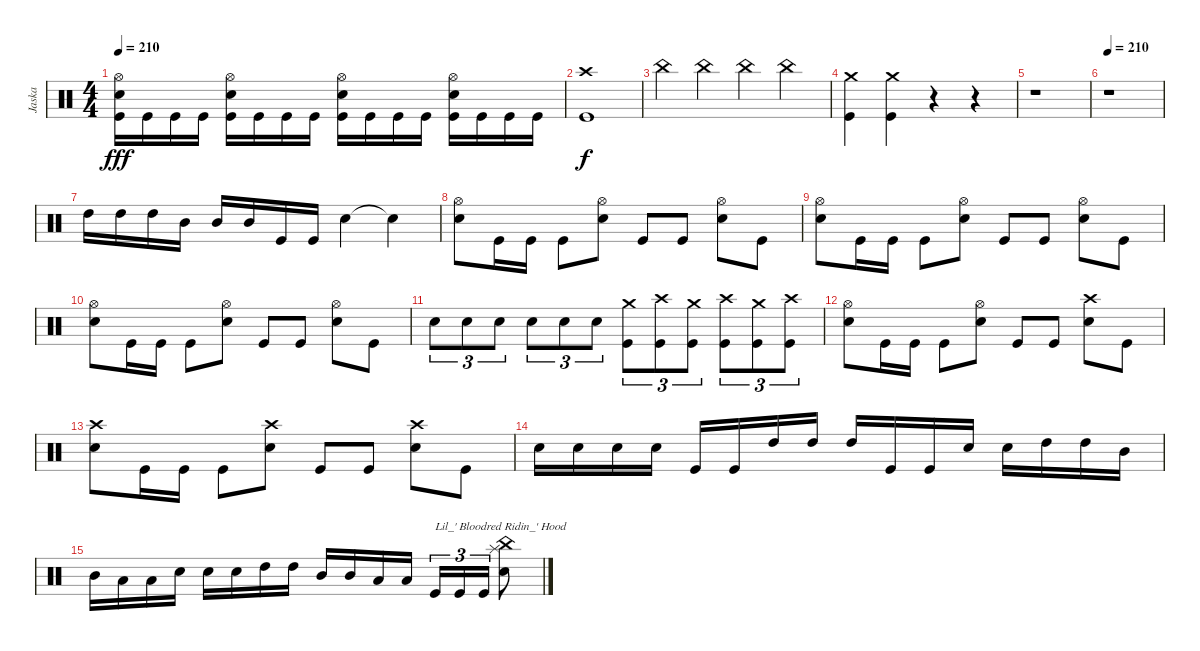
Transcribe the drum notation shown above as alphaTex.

\track ("Jaska" "Jaska") {instrument percussion}
\staff {score}
\articulation defaults
\ts (4 4)
\tempo 210
\clef neutral
\ks c
("Hi-Hat (open)" "Electric Snare (hit)" "Kick (hit)").16{dy fff} "Kick (hit)".16 "Kick (hit)".16 "Kick (hit)".16 ("Hi-Hat (open)" "Electric Snare (hit)" "Kick (hit)").16 "Kick (hit)".16 "Kick (hit)".16 "Kick (hit)".16 ("Hi-Hat (open)" "Electric Snare (hit)" "Kick (hit)").16 "Kick (hit)".16 "Kick (hit)".16 "Kick (hit)".16 ("Hi-Hat (open)" "Electric Snare (hit)" "Kick (hit)").16 "Kick (hit)".16 "Kick (hit)".16 "Kick (hit)".16 |
("Crash high (hit)" "Kick (hit)").1{dy f} |
"China (hit)".4 "China (hit)".4 "China (hit)".4 "China (hit)".4 |
("Crash medium (hit)" "Kick (hit)").4 ("Crash medium (hit)" "Kick (hit)").4 r.4 r.4 |
r.1 |
\tempo 210
r.1 |
"High Tom (hit)".16 "High Tom (hit)".16 "High Tom (hit)".16 "Mid Tom (hit)".16 "Mid Tom (hit)".16 "Mid Tom (hit)".16 "Kick (hit)".16 "Kick (hit)".16 "Electric Snare (hit)".4 "Snare (hit)"{t}.4 |
("Hi-Hat (open)" "Electric Snare (hit)").8 "Kick (hit)".16 "Kick (hit)".16 "Kick (hit)".8 ("Hi-Hat (open)" "Electric Snare (hit)").8 "Kick (hit)".8 "Kick (hit)".8 ("Hi-Hat (open)" "Electric Snare (hit)").8 "Kick (hit)".8 |
("Hi-Hat (open)" "Electric Snare (hit)").8 "Kick (hit)".16 "Kick (hit)".16 "Kick (hit)".8 ("Hi-Hat (open)" "Electric Snare (hit)").8 "Kick (hit)".8 "Kick (hit)".8 ("Hi-Hat (open)" "Electric Snare (hit)").8 "Kick (hit)".8 |
("Hi-Hat (open)" "Electric Snare (hit)").8 "Kick (hit)".16 "Kick (hit)".16 "Kick (hit)".8 ("Hi-Hat (open)" "Electric Snare (hit)").8 "Kick (hit)".8 "Kick (hit)".8 ("Hi-Hat (open)" "Electric Snare (hit)").8 "Kick (hit)".8 |
"Electric Snare (hit)".8{tu (3 2)} "Electric Snare (hit)".8{tu (3 2)} "Electric Snare (hit)".8{tu (3 2)} "Electric Snare (hit)".8{tu (3 2)} "Electric Snare (hit)".8{tu (3 2)} "Electric Snare (hit)".8{tu (3 2)} ("Crash medium (hit)" "Kick (hit)").8{tu (3 2)} ("Crash high (hit)" "Kick (hit)").8{tu (3 2)} ("Crash medium (hit)" "Kick (hit)").8{tu (3 2)} ("Crash high (hit)" "Kick (hit)").8{tu (3 2)} ("Crash medium (hit)" "Kick (hit)").8{tu (3 2)} ("Crash high (hit)" "Kick (hit)").8{tu (3 2)} |
("Hi-Hat (open)" "Electric Snare (hit)").8 "Kick (hit)".16 "Kick (hit)".16 "Kick (hit)".8 ("Hi-Hat (open)" "Electric Snare (hit)").8 "Kick (hit)".8 "Kick (hit)".8 ("Crash high (hit)" "Electric Snare (hit)").8 "Kick (hit)".8 |
("Crash high (hit)" "Electric Snare (hit)").8 "Kick (hit)".16 "Kick (hit)".16 "Kick (hit)".8 ("Crash high (hit)" "Electric Snare (hit)").8 "Kick (hit)".8 "Kick (hit)".8 ("Crash high (hit)" "Electric Snare (hit)").8 "Kick (hit)".8 |
"Electric Snare (hit)".16 "Electric Snare (hit)".16 "Electric Snare (hit)".16 "Electric Snare (hit)".16 "Kick (hit)".16 "Kick (hit)".16 "High Tom (hit)".16 "High Tom (hit)".16 "High Tom (hit)".16 "Kick (hit)".16 "Kick (hit)".16 "Electric Snare (hit)".16 "Electric Snare (hit)".16 "High Tom (hit)".16 "High Tom (hit)".16 "Mid Tom (hit)".16 |
"Mid Tom (hit)".16 "Low Tom (hit)".16 "Low Tom (hit)".16 "Electric Snare (hit)".16 "Electric Snare (hit)".16 "Electric Snare (hit)".16 "High Tom (hit)".16 "High Tom (hit)".16 "Mid Tom (hit)".16 "Mid Tom (hit)".16 "Low Tom (hit)".16 "Low Tom (hit)".16 "Kick (hit)".16{tu (3 2) txt "Lil_' Bloodred Ridin_' Hood"} "Kick (hit)".16{tu (3 2)} "Kick (hit)".16{tu (3 2)} ("Splash (hit)" "China (hit)" "Electric Snare (hit)").8
